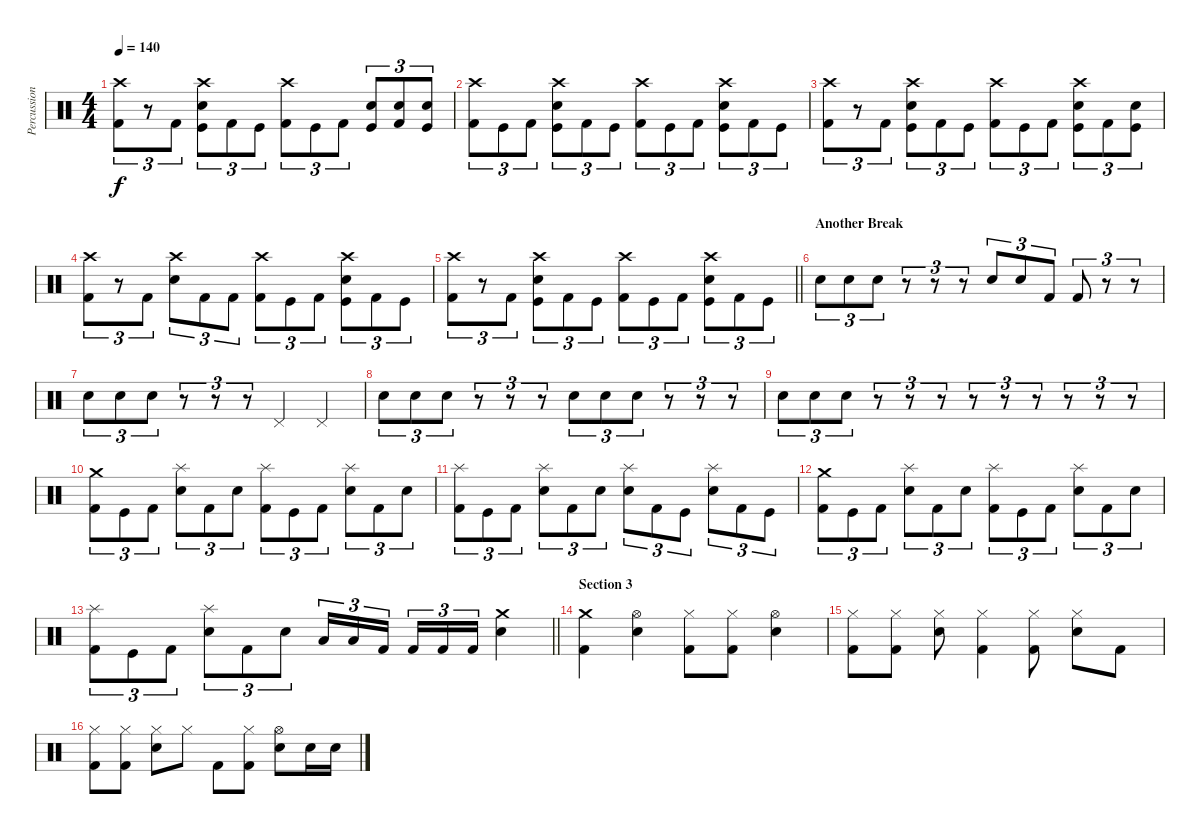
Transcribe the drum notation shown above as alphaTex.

\track ("Percussion" "Percussion") {instrument percussion}
\staff {score}
\articulation defaults
\ts (4 4)
\tempo 140
\clef neutral
\ks c
("Crash high (hit)" "Kick (hit) 2").8{tu (3 2) dy f} r.8{tu (3 2)} "Kick (hit) 2".8{tu (3 2)} ("Crash high (hit)" "Snare (hit) 2" "Kick (hit)").8{tu (3 2)} "Kick (hit) 2".8{tu (3 2)} "Kick (hit)".8{tu (3 2)} ("Crash high (hit)" "Kick (hit) 2").8{tu (3 2)} "Kick (hit)".8{tu (3 2)} "Kick (hit) 2".8{tu (3 2)} ("Snare (hit) 2" "Kick (hit)").8{tu (3 2)} ("Snare (hit) 2" "Kick (hit) 2").8{tu (3 2)} ("Snare (hit) 2" "Kick (hit)").8{tu (3 2)} |
("Crash high (hit)" "Kick (hit) 2").8{tu (3 2)} "Kick (hit)".8{tu (3 2)} "Kick (hit) 2".8{tu (3 2)} ("Crash high (hit)" "Snare (hit) 2" "Kick (hit)").8{tu (3 2)} "Kick (hit) 2".8{tu (3 2)} "Kick (hit)".8{tu (3 2)} ("Crash high (hit)" "Kick (hit) 2").8{tu (3 2)} "Kick (hit)".8{tu (3 2)} "Kick (hit) 2".8{tu (3 2)} ("Crash high (hit)" "Snare (hit) 2" "Kick (hit)").8{tu (3 2)} "Kick (hit) 2".8{tu (3 2)} "Kick (hit)".8{tu (3 2)} |
("Crash high (hit)" "Kick (hit) 2").8{tu (3 2)} r.8{tu (3 2)} "Kick (hit) 2".8{tu (3 2)} ("Crash high (hit)" "Snare (hit) 2" "Kick (hit)").8{tu (3 2)} "Kick (hit) 2".8{tu (3 2)} "Kick (hit)".8{tu (3 2)} ("Crash high (hit)" "Kick (hit) 2").8{tu (3 2)} "Kick (hit)".8{tu (3 2)} "Kick (hit) 2".8{tu (3 2)} ("Crash high (hit)" "Snare (hit) 2" "Kick (hit)").8{tu (3 2)} "Kick (hit) 2".8{tu (3 2)} ("Snare (hit) 2" "Kick (hit)").8{tu (3 2)} |
("Crash high (hit)" "Kick (hit) 2").8{tu (3 2)} r.8{tu (3 2)} "Kick (hit) 2".8{tu (3 2)} ("Crash high (hit)" "Snare (hit) 2").8{tu (3 2)} "Kick (hit) 2".8{tu (3 2)} "Kick (hit) 2".8{tu (3 2)} ("Crash high (hit)" "Kick (hit) 2").8{tu (3 2)} "Kick (hit)".8{tu (3 2)} "Kick (hit) 2".8{tu (3 2)} ("Crash high (hit)" "Snare (hit) 2" "Kick (hit)").8{tu (3 2)} "Kick (hit) 2".8{tu (3 2)} "Kick (hit)".8{tu (3 2)} |
\barLineRight lightlight
("Crash high (hit)" "Kick (hit) 2").8{tu (3 2)} r.8{tu (3 2)} "Kick (hit) 2".8{tu (3 2)} ("Crash high (hit)" "Snare (hit) 2" "Kick (hit)").8{tu (3 2)} "Kick (hit) 2".8{tu (3 2)} "Kick (hit)".8{tu (3 2)} ("Crash high (hit)" "Kick (hit) 2").8{tu (3 2)} "Kick (hit)".8{tu (3 2)} "Kick (hit) 2".8{tu (3 2)} ("Crash high (hit)" "Snare (hit) 2" "Kick (hit)").8{tu (3 2)} "Kick (hit) 2".8{tu (3 2)} "Kick (hit)".8{tu (3 2)} |
\section ("" "Another Break")
"Snare (hit) 2".8{tu (3 2)} "Snare (hit) 2".8{tu (3 2)} "Snare (hit) 2".8{tu (3 2)} r.8{tu (3 2)} r.8{tu (3 2)} r.8{tu (3 2)} "Snare (hit) 2".8{tu (3 2)} "Snare (hit) 2".8{tu (3 2)} "Kick (hit) 2".8{tu (3 2)} "Kick (hit) 2".8{tu (3 2)} r.8{tu (3 2)} r.8{tu (3 2)} |
"Snare (hit) 2".8{tu (3 2)} "Snare (hit) 2".8{tu (3 2)} "Snare (hit) 2".8{tu (3 2)} r.8{tu (3 2)} r.8{tu (3 2)} r.8{tu (3 2)} "Pedal Hi-Hat (hit)".4 "Pedal Hi-Hat (hit)".4 |
"Snare (hit) 2".8{tu (3 2)} "Snare (hit) 2".8{tu (3 2)} "Snare (hit) 2".8{tu (3 2)} r.8{tu (3 2)} r.8{tu (3 2)} r.8{tu (3 2)} "Snare (hit) 2".8{tu (3 2)} "Snare (hit) 2".8{tu (3 2)} "Snare (hit) 2".8{tu (3 2)} r.8{tu (3 2)} r.8{tu (3 2)} r.8{tu (3 2)} |
"Snare (hit) 2".8{tu (3 2)} "Snare (hit) 2".8{tu (3 2)} "Snare (hit) 2".8{tu (3 2)} r.8{tu (3 2)} r.8{tu (3 2)} r.8{tu (3 2)} r.8{tu (3 2)} r.8{tu (3 2)} r.8{tu (3 2)} r.8{tu (3 2)} r.8{tu (3 2)} r.8{tu (3 2)} |
("Crash medium (hit)" "Kick (hit) 2").8{tu (3 2)} "Kick (hit)".8{tu (3 2)} "Kick (hit) 2".8{tu (3 2)} ("Splash (hit)" "Snare (hit) 2").8{tu (3 2)} "Kick (hit) 2".8{tu (3 2)} "Snare (hit) 2".8{tu (3 2)} ("Splash (hit)" "Kick (hit) 2").8{tu (3 2)} "Kick (hit)".8{tu (3 2)} "Kick (hit) 2".8{tu (3 2)} ("Splash (hit)" "Snare (hit) 2").8{tu (3 2)} "Kick (hit) 2".8{tu (3 2)} "Snare (hit) 2".8{tu (3 2)} |
("Splash (hit)" "Kick (hit) 2").8{tu (3 2)} "Kick (hit)".8{tu (3 2)} "Kick (hit) 2".8{tu (3 2)} ("Splash (hit)" "Snare (hit) 2").8{tu (3 2)} "Kick (hit) 2".8{tu (3 2)} "Snare (hit) 2".8{tu (3 2)} ("Splash (hit)" "Snare (hit) 2").8{tu (3 2)} "Kick (hit) 2".8{tu (3 2)} "Kick (hit)".8{tu (3 2)} ("Splash (hit)" "Snare (hit) 2").8{tu (3 2)} "Kick (hit) 2".8{tu (3 2)} "Kick (hit)".8{tu (3 2)} |
("Crash medium (hit)" "Kick (hit) 2").8{tu (3 2)} "Kick (hit)".8{tu (3 2)} "Kick (hit) 2".8{tu (3 2)} ("Splash (hit)" "Snare (hit) 2").8{tu (3 2)} "Kick (hit) 2".8{tu (3 2)} "Snare (hit) 2".8{tu (3 2)} ("Splash (hit)" "Kick (hit) 2").8{tu (3 2)} "Kick (hit)".8{tu (3 2)} "Kick (hit) 2".8{tu (3 2)} ("Splash (hit)" "Snare (hit) 2").8{tu (3 2)} "Kick (hit) 2".8{tu (3 2)} "Snare (hit) 2".8{tu (3 2)} |
\barLineRight lightlight
("Splash (hit)" "Kick (hit) 2").8{tu (3 2)} "Kick (hit)".8{tu (3 2)} "Kick (hit) 2".8{tu (3 2)} ("Splash (hit)" "Snare (hit) 2").8{tu (3 2)} "Kick (hit) 2".8{tu (3 2)} "Snare (hit) 2".8{tu (3 2)} "Low Tom (hit)".16{tu (3 2)} "Low Tom (hit)".16{tu (3 2)} "Kick (hit) 2".16{tu (3 2) beam splitsecondary} "Kick (hit) 2".16{tu (3 2)} "Kick (hit) 2".16{tu (3 2)} "Kick (hit) 2".16{tu (3 2)} ("Crash medium (hit)" "Snare (hit) 2").4 |
\section ("" "Section 3")
("Crash medium (hit)" "Kick (hit) 2").4 ("Hi-Hat (open)" "Snare (hit) 2").4 ("Hi-Hat (closed)" "Kick (hit) 2").8 ("Hi-Hat (closed)" "Kick (hit) 2").8 ("Hi-Hat (open)" "Snare (hit) 2").4 |
("Hi-Hat (closed)" "Kick (hit) 2").8 ("Hi-Hat (closed)" "Kick (hit) 2").8 ("Hi-Hat (closed)" "Snare (hit) 2").8 ("Hi-Hat (closed)" "Kick (hit) 2").4 ("Hi-Hat (closed)" "Kick (hit) 2").8 ("Hi-Hat (closed)" "Snare (hit) 2").8 "Kick (hit) 2".8 |
("Hi-Hat (closed)" "Kick (hit) 2").8 ("Hi-Hat (closed)" "Kick (hit) 2").8 ("Hi-Hat (closed)" "Snare (hit) 2").8 "Hi-Hat (closed)".8 "Kick (hit) 2".8 ("Hi-Hat (closed)" "Kick (hit) 2").8 ("Hi-Hat (open)" "Snare (hit) 2").8 "Snare (hit) 2".16 "Snare (hit) 2".16
